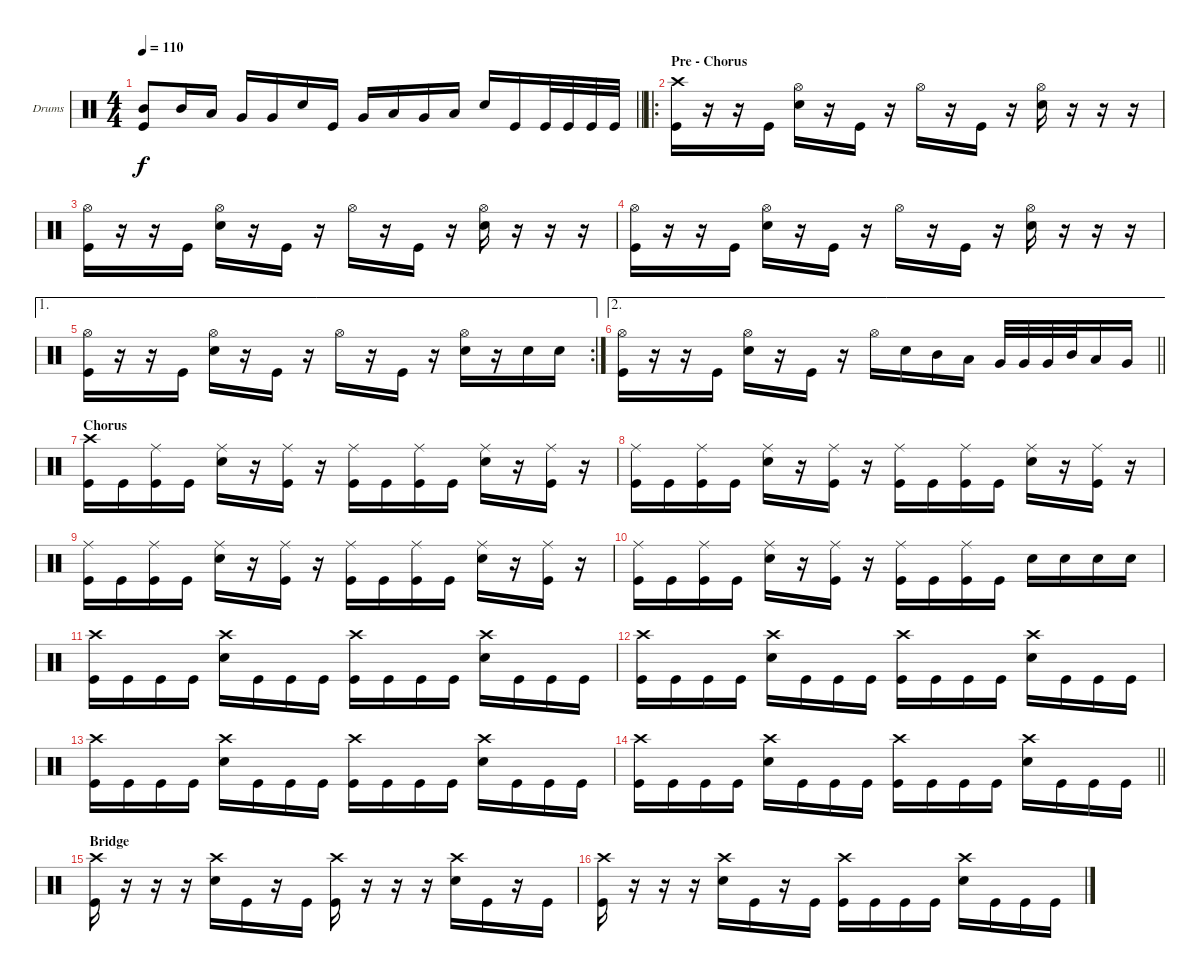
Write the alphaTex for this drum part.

\bracketExtendMode groupsimilarinstruments
\firstSystemTrackNameOrientation horizontal
\otherSystemsTrackNameOrientation horizontal
\track ("Drumkit" "Drums") {instrument percussion}
\staff {score}
\articulation defaults
\ts (4 4)
\tempo 110
\clef neutral
\barLineRight lightlight
\ks c
("Mid Tom (hit)" "Kick (hit)").8{dy f} "Mid Tom (hit)".16 "Low Tom (hit)".16 "Very Low Tom (hit)".16 "Very Low Tom (hit)".16 "Snare (hit) 2".16 "Kick (hit)".16 "Very Low Tom (hit)".16 "Low Tom (hit)".16 "Very Low Tom (hit)".16 "Low Tom (hit)".16 "Snare (hit) 2".16 "Kick (hit)".16 "Kick (hit)".32 "Kick (hit)".32 "Kick (hit)".32 "Kick (hit)".32 |
\ro
\section ("" "Pre - Chorus")
("Crash high (hit)" "Kick (hit)").16 r.16 r.16 "Kick (hit)".16 ("Hi-Hat (open)" "Snare (hit) 2").16 r.16 "Kick (hit)".16 r.16 "Hi-Hat (open)".16 r.16 "Kick (hit)".16 r.16 ("Hi-Hat (open)" "Snare (hit) 2").16 r.16 r.16 r.16 |
("Hi-Hat (open)" "Kick (hit)").16 r.16 r.16 "Kick (hit)".16 ("Hi-Hat (open)" "Snare (hit) 2").16 r.16 "Kick (hit)".16 r.16 "Hi-Hat (open)".16 r.16 "Kick (hit)".16 r.16 ("Hi-Hat (open)" "Snare (hit) 2").16 r.16 r.16 r.16 |
("Hi-Hat (open)" "Kick (hit)").16 r.16 r.16 "Kick (hit)".16 ("Hi-Hat (open)" "Snare (hit) 2").16 r.16 "Kick (hit)".16 r.16 "Hi-Hat (open)".16 r.16 "Kick (hit)".16 r.16 ("Hi-Hat (open)" "Snare (hit) 2").16 r.16 r.16 r.16 |
\ae 1
\rc 2
("Hi-Hat (open)" "Kick (hit)").16 r.16 r.16 "Kick (hit)".16 ("Hi-Hat (open)" "Snare (hit) 2").16 r.16 "Kick (hit)".16 r.16 "Hi-Hat (open)".16 r.16 "Kick (hit)".16 r.16 ("Hi-Hat (open)" "Snare (hit) 2").16 r.16 "Snare (hit) 2".16 "Snare (hit) 2".16 |
\ae 2
\barLineRight lightlight
("Hi-Hat (open)" "Kick (hit)").16 r.16 r.16 "Kick (hit)".16 ("Hi-Hat (open)" "Snare (hit) 2").16 r.16 "Kick (hit)".16 r.16 "Hi-Hat (open)".16 "Snare (hit) 2".16 "Mid Tom (hit)".16 "Low Tom (hit)".16 "Very Low Tom (hit)".32 "Very Low Tom (hit)".32 "Very Low Tom (hit)".32 "Mid Tom (hit)".32 "Low Tom (hit)".16 "Very Low Tom (hit)".16 |
\section ("" "Chorus")
("Crash high (hit)" "Kick (hit)").16 "Kick (hit)".16 ("Ride (middle)" "Kick (hit)").16 "Kick (hit)".16 ("Ride (middle)" "Snare (hit) 2").16 r.16 ("Ride (middle)" "Kick (hit)").16 r.16 ("Ride (middle)" "Kick (hit)").16 "Kick (hit)".16 ("Ride (middle)" "Kick (hit)").16 "Kick (hit)".16 ("Ride (middle)" "Snare (hit) 2").16 r.16 ("Ride (middle)" "Kick (hit)").16 r.16 |
("Ride (middle)" "Kick (hit)").16 "Kick (hit)".16 ("Ride (middle)" "Kick (hit)").16 "Kick (hit)".16 ("Ride (middle)" "Snare (hit) 2").16 r.16 ("Ride (middle)" "Kick (hit)").16 r.16 ("Ride (middle)" "Kick (hit)").16 "Kick (hit)".16 ("Ride (middle)" "Kick (hit)").16 "Kick (hit)".16 ("Ride (middle)" "Snare (hit) 2").16 r.16 ("Ride (middle)" "Kick (hit)").16 r.16 |
("Ride (middle)" "Kick (hit)").16 "Kick (hit)".16 ("Ride (middle)" "Kick (hit)").16 "Kick (hit)".16 ("Ride (middle)" "Snare (hit) 2").16 r.16 ("Ride (middle)" "Kick (hit)").16 r.16 ("Ride (middle)" "Kick (hit)").16 "Kick (hit)".16 ("Ride (middle)" "Kick (hit)").16 "Kick (hit)".16 ("Ride (middle)" "Snare (hit) 2").16 r.16 ("Ride (middle)" "Kick (hit)").16 r.16 |
("Ride (middle)" "Kick (hit)").16 "Kick (hit)".16 ("Ride (middle)" "Kick (hit)").16 "Kick (hit)".16 ("Ride (middle)" "Snare (hit) 2").16 r.16 ("Ride (middle)" "Kick (hit)").16 r.16 ("Ride (middle)" "Kick (hit)").16 "Kick (hit)".16 ("Ride (middle)" "Kick (hit)").16 "Kick (hit)".16 "Snare (hit) 2".16 "Snare (hit) 2".16 "Snare (hit) 2".16 "Snare (hit) 2".16 |
("Crash high (hit)" "Kick (hit)").16 "Kick (hit)".16 "Kick (hit)".16 "Kick (hit)".16 ("Crash high (hit)" "Snare (hit) 2").16 "Kick (hit)".16 "Kick (hit)".16 "Kick (hit)".16 ("Crash high (hit)" "Kick (hit)").16 "Kick (hit)".16 "Kick (hit)".16 "Kick (hit)".16 ("Crash high (hit)" "Snare (hit) 2").16 "Kick (hit)".16 "Kick (hit)".16 "Kick (hit)".16 |
("Crash high (hit)" "Kick (hit)").16 "Kick (hit)".16 "Kick (hit)".16 "Kick (hit)".16 ("Crash high (hit)" "Snare (hit) 2").16 "Kick (hit)".16 "Kick (hit)".16 "Kick (hit)".16 ("Crash high (hit)" "Kick (hit)").16 "Kick (hit)".16 "Kick (hit)".16 "Kick (hit)".16 ("Crash high (hit)" "Snare (hit) 2").16 "Kick (hit)".16 "Kick (hit)".16 "Kick (hit)".16 |
("Crash high (hit)" "Kick (hit)").16 "Kick (hit)".16 "Kick (hit)".16 "Kick (hit)".16 ("Crash high (hit)" "Snare (hit) 2").16 "Kick (hit)".16 "Kick (hit)".16 "Kick (hit)".16 ("Crash high (hit)" "Kick (hit)").16 "Kick (hit)".16 "Kick (hit)".16 "Kick (hit)".16 ("Crash high (hit)" "Snare (hit) 2").16 "Kick (hit)".16 "Kick (hit)".16 "Kick (hit)".16 |
\barLineRight lightlight
("Crash high (hit)" "Kick (hit)").16 "Kick (hit)".16 "Kick (hit)".16 "Kick (hit)".16 ("Crash high (hit)" "Snare (hit) 2").16 "Kick (hit)".16 "Kick (hit)".16 "Kick (hit)".16 ("Crash high (hit)" "Kick (hit)").16 "Kick (hit)".16 "Kick (hit)".16 "Kick (hit)".16 ("Crash high (hit)" "Snare (hit) 2").16 "Kick (hit)".16 "Kick (hit)".16 "Kick (hit)".16 |
\section ("" "Bridge")
("Crash high (hit)" "Kick (hit)").16 r.16 r.16 r.16 ("Crash high (hit)" "Snare (hit) 2").16 "Kick (hit)".16 r.16 "Kick (hit)".16 ("Crash high (hit)" "Kick (hit)").16 r.16 r.16 r.16 ("Crash high (hit)" "Snare (hit) 2").16 "Kick (hit)".16 r.16 "Kick (hit)".16 |
("Crash high (hit)" "Kick (hit)").16 r.16 r.16 r.16 ("Crash high (hit)" "Snare (hit) 2").16 "Kick (hit)".16 r.16 "Kick (hit)".16 ("Crash high (hit)" "Kick (hit)").16 "Kick (hit)".16 "Kick (hit)".16 "Kick (hit)".16 ("Crash high (hit)" "Snare (hit) 2").16 "Kick (hit)".16 "Kick (hit)".16 "Kick (hit)".16
